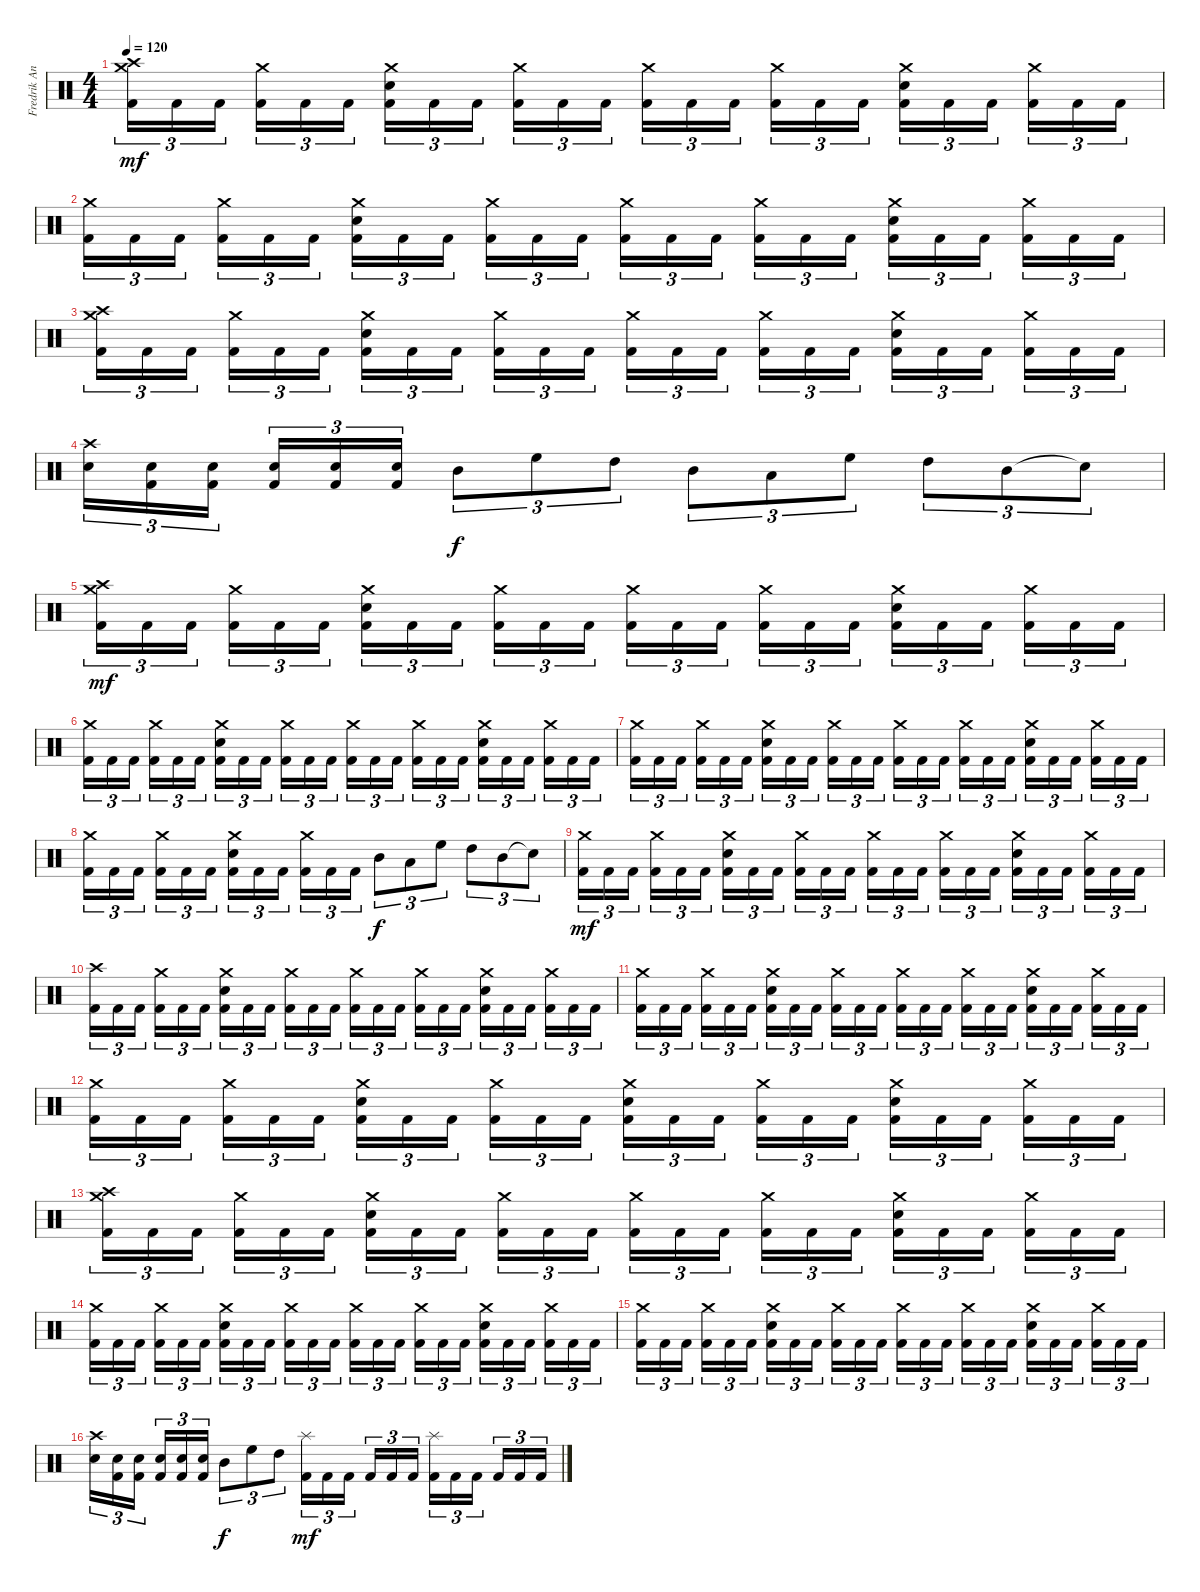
\track ("Fredrik Andersson" "Fredrik An") {instrument percussion}
\staff {score}
\articulation defaults
\ts (4 4)
\tempo 120
\clef neutral
\ks c
("Crash high (hit)" "Crash medium (hit)" "Kick (hit) 2").16{tu (3 2) dy mf} "Kick (hit) 2".16{tu (3 2)} "Kick (hit) 2".16{tu (3 2) beam splitsecondary} ("Crash medium (hit)" "Kick (hit) 2").16{tu (3 2)} "Kick (hit) 2".16{tu (3 2)} "Kick (hit) 2".16{tu (3 2)} ("Snare (hit) 2" "Crash medium (hit)" "Kick (hit) 2").16{tu (3 2)} "Kick (hit) 2".16{tu (3 2)} "Kick (hit) 2".16{tu (3 2) beam splitsecondary} ("Crash medium (hit)" "Kick (hit) 2").16{tu (3 2)} "Kick (hit) 2".16{tu (3 2)} "Kick (hit) 2".16{tu (3 2)} ("Crash medium (hit)" "Kick (hit) 2").16{tu (3 2)} "Kick (hit) 2".16{tu (3 2)} "Kick (hit) 2".16{tu (3 2) beam splitsecondary} ("Crash medium (hit)" "Kick (hit) 2").16{tu (3 2)} "Kick (hit) 2".16{tu (3 2)} "Kick (hit) 2".16{tu (3 2)} ("Snare (hit) 2" "Crash medium (hit)" "Kick (hit) 2").16{tu (3 2)} "Kick (hit) 2".16{tu (3 2)} "Kick (hit) 2".16{tu (3 2) beam splitsecondary} ("Crash medium (hit)" "Kick (hit) 2").16{tu (3 2)} "Kick (hit) 2".16{tu (3 2)} "Kick (hit) 2".16{tu (3 2)} |
("Crash medium (hit)" "Kick (hit) 2").16{tu (3 2)} "Kick (hit) 2".16{tu (3 2)} "Kick (hit) 2".16{tu (3 2) beam splitsecondary} ("Crash medium (hit)" "Kick (hit) 2").16{tu (3 2)} "Kick (hit) 2".16{tu (3 2)} "Kick (hit) 2".16{tu (3 2)} ("Snare (hit) 2" "Crash medium (hit)" "Kick (hit) 2").16{tu (3 2)} "Kick (hit) 2".16{tu (3 2)} "Kick (hit) 2".16{tu (3 2) beam splitsecondary} ("Crash medium (hit)" "Kick (hit) 2").16{tu (3 2)} "Kick (hit) 2".16{tu (3 2)} "Kick (hit) 2".16{tu (3 2)} ("Crash medium (hit)" "Kick (hit) 2").16{tu (3 2)} "Kick (hit) 2".16{tu (3 2)} "Kick (hit) 2".16{tu (3 2) beam splitsecondary} ("Crash medium (hit)" "Kick (hit) 2").16{tu (3 2)} "Kick (hit) 2".16{tu (3 2)} "Kick (hit) 2".16{tu (3 2)} ("Snare (hit) 2" "Crash medium (hit)" "Kick (hit) 2").16{tu (3 2)} "Kick (hit) 2".16{tu (3 2)} "Kick (hit) 2".16{tu (3 2) beam splitsecondary} ("Crash medium (hit)" "Kick (hit) 2").16{tu (3 2)} "Kick (hit) 2".16{tu (3 2)} "Kick (hit) 2".16{tu (3 2)} |
("Crash high (hit)" "Crash medium (hit)" "Kick (hit) 2").16{tu (3 2)} "Kick (hit) 2".16{tu (3 2)} "Kick (hit) 2".16{tu (3 2) beam splitsecondary} ("Crash medium (hit)" "Kick (hit) 2").16{tu (3 2)} "Kick (hit) 2".16{tu (3 2)} "Kick (hit) 2".16{tu (3 2)} ("Snare (hit) 2" "Crash medium (hit)" "Kick (hit) 2").16{tu (3 2)} "Kick (hit) 2".16{tu (3 2)} "Kick (hit) 2".16{tu (3 2) beam splitsecondary} ("Crash medium (hit)" "Kick (hit) 2").16{tu (3 2)} "Kick (hit) 2".16{tu (3 2)} "Kick (hit) 2".16{tu (3 2)} ("Crash medium (hit)" "Kick (hit) 2").16{tu (3 2)} "Kick (hit) 2".16{tu (3 2)} "Kick (hit) 2".16{tu (3 2) beam splitsecondary} ("Crash medium (hit)" "Kick (hit) 2").16{tu (3 2)} "Kick (hit) 2".16{tu (3 2)} "Kick (hit) 2".16{tu (3 2)} ("Snare (hit) 2" "Crash medium (hit)" "Kick (hit) 2").16{tu (3 2)} "Kick (hit) 2".16{tu (3 2)} "Kick (hit) 2".16{tu (3 2) beam splitsecondary} ("Crash medium (hit)" "Kick (hit) 2").16{tu (3 2)} "Kick (hit) 2".16{tu (3 2)} "Kick (hit) 2".16{tu (3 2)} |
("Crash high (hit)" "Snare (hit) 2").16{tu (3 2)} ("Snare (hit) 2" "Kick (hit) 2").16{tu (3 2)} ("Snare (hit) 2" "Kick (hit) 2").16{tu (3 2) beam splitsecondary} ("Snare (hit) 2" "Kick (hit) 2").16{tu (3 2)} ("Snare (hit) 2" "Kick (hit) 2").16{tu (3 2)} ("Snare (hit) 2" "Kick (hit) 2").16{tu (3 2)} "Mid Tom (hit)".8{tu (3 2) dy f} "High Floor Tom (hit)".8{tu (3 2)} "High Tom (hit)".8{tu (3 2)} "Mid Tom (hit)".8{tu (3 2)} "Low Tom (hit)".8{tu (3 2)} "High Floor Tom (hit)".8{tu (3 2)} "High Tom (hit)".8{tu (3 2)} "Mid Tom (hit)".8{tu (3 2)} "Snare (hit)"{t}.8{tu (3 2)} |
("Crash high (hit)" "Crash medium (hit)" "Kick (hit) 2").16{tu (3 2) dy mf} "Kick (hit) 2".16{tu (3 2)} "Kick (hit) 2".16{tu (3 2) beam splitsecondary} ("Crash medium (hit)" "Kick (hit) 2").16{tu (3 2)} "Kick (hit) 2".16{tu (3 2)} "Kick (hit) 2".16{tu (3 2)} ("Snare (hit) 2" "Crash medium (hit)" "Kick (hit) 2").16{tu (3 2)} "Kick (hit) 2".16{tu (3 2)} "Kick (hit) 2".16{tu (3 2) beam splitsecondary} ("Crash medium (hit)" "Kick (hit) 2").16{tu (3 2)} "Kick (hit) 2".16{tu (3 2)} "Kick (hit) 2".16{tu (3 2)} ("Crash medium (hit)" "Kick (hit) 2").16{tu (3 2)} "Kick (hit) 2".16{tu (3 2)} "Kick (hit) 2".16{tu (3 2) beam splitsecondary} ("Crash medium (hit)" "Kick (hit) 2").16{tu (3 2)} "Kick (hit) 2".16{tu (3 2)} "Kick (hit) 2".16{tu (3 2)} ("Snare (hit) 2" "Crash medium (hit)" "Kick (hit) 2").16{tu (3 2)} "Kick (hit) 2".16{tu (3 2)} "Kick (hit) 2".16{tu (3 2) beam splitsecondary} ("Crash medium (hit)" "Kick (hit) 2").16{tu (3 2)} "Kick (hit) 2".16{tu (3 2)} "Kick (hit) 2".16{tu (3 2)} |
("Crash medium (hit)" "Kick (hit) 2").16{tu (3 2)} "Kick (hit) 2".16{tu (3 2)} "Kick (hit) 2".16{tu (3 2) beam splitsecondary} ("Crash medium (hit)" "Kick (hit) 2").16{tu (3 2)} "Kick (hit) 2".16{tu (3 2)} "Kick (hit) 2".16{tu (3 2)} ("Snare (hit) 2" "Crash medium (hit)" "Kick (hit) 2").16{tu (3 2)} "Kick (hit) 2".16{tu (3 2)} "Kick (hit) 2".16{tu (3 2) beam splitsecondary} ("Crash medium (hit)" "Kick (hit) 2").16{tu (3 2)} "Kick (hit) 2".16{tu (3 2)} "Kick (hit) 2".16{tu (3 2)} ("Crash medium (hit)" "Kick (hit) 2").16{tu (3 2)} "Kick (hit) 2".16{tu (3 2)} "Kick (hit) 2".16{tu (3 2) beam splitsecondary} ("Crash medium (hit)" "Kick (hit) 2").16{tu (3 2)} "Kick (hit) 2".16{tu (3 2)} "Kick (hit) 2".16{tu (3 2)} ("Snare (hit) 2" "Crash medium (hit)" "Kick (hit) 2").16{tu (3 2)} "Kick (hit) 2".16{tu (3 2)} "Kick (hit) 2".16{tu (3 2) beam splitsecondary} ("Crash medium (hit)" "Kick (hit) 2").16{tu (3 2)} "Kick (hit) 2".16{tu (3 2)} "Kick (hit) 2".16{tu (3 2)} |
("Crash medium (hit)" "Kick (hit) 2").16{tu (3 2)} "Kick (hit) 2".16{tu (3 2)} "Kick (hit) 2".16{tu (3 2) beam splitsecondary} ("Crash medium (hit)" "Kick (hit) 2").16{tu (3 2)} "Kick (hit) 2".16{tu (3 2)} "Kick (hit) 2".16{tu (3 2)} ("Snare (hit) 2" "Crash medium (hit)" "Kick (hit) 2").16{tu (3 2)} "Kick (hit) 2".16{tu (3 2)} "Kick (hit) 2".16{tu (3 2) beam splitsecondary} ("Crash medium (hit)" "Kick (hit) 2").16{tu (3 2)} "Kick (hit) 2".16{tu (3 2)} "Kick (hit) 2".16{tu (3 2)} ("Crash medium (hit)" "Kick (hit) 2").16{tu (3 2)} "Kick (hit) 2".16{tu (3 2)} "Kick (hit) 2".16{tu (3 2) beam splitsecondary} ("Crash medium (hit)" "Kick (hit) 2").16{tu (3 2)} "Kick (hit) 2".16{tu (3 2)} "Kick (hit) 2".16{tu (3 2)} ("Snare (hit) 2" "Crash medium (hit)" "Kick (hit) 2").16{tu (3 2)} "Kick (hit) 2".16{tu (3 2)} "Kick (hit) 2".16{tu (3 2) beam splitsecondary} ("Crash medium (hit)" "Kick (hit) 2").16{tu (3 2)} "Kick (hit) 2".16{tu (3 2)} "Kick (hit) 2".16{tu (3 2)} |
("Crash medium (hit)" "Kick (hit) 2").16{tu (3 2)} "Kick (hit) 2".16{tu (3 2)} "Kick (hit) 2".16{tu (3 2) beam splitsecondary} ("Crash medium (hit)" "Kick (hit) 2").16{tu (3 2)} "Kick (hit) 2".16{tu (3 2)} "Kick (hit) 2".16{tu (3 2)} ("Snare (hit) 2" "Crash medium (hit)" "Kick (hit) 2").16{tu (3 2)} "Kick (hit) 2".16{tu (3 2)} "Kick (hit) 2".16{tu (3 2) beam splitsecondary} ("Crash medium (hit)" "Kick (hit) 2").16{tu (3 2)} "Kick (hit) 2".16{tu (3 2)} "Kick (hit) 2".16{tu (3 2)} "Mid Tom (hit)".8{tu (3 2) dy f} "Low Tom (hit)".8{tu (3 2)} "High Floor Tom (hit)".8{tu (3 2)} "High Tom (hit)".8{tu (3 2)} "Mid Tom (hit)".8{tu (3 2)} "Snare (hit)"{t}.8{tu (3 2)} |
("Crash medium (hit)" "Kick (hit) 2").16{tu (3 2) dy mf} "Kick (hit) 2".16{tu (3 2)} "Kick (hit) 2".16{tu (3 2) beam splitsecondary} ("Crash medium (hit)" "Kick (hit) 2").16{tu (3 2)} "Kick (hit) 2".16{tu (3 2)} "Kick (hit) 2".16{tu (3 2)} ("Snare (hit) 2" "Crash medium (hit)" "Kick (hit) 2").16{tu (3 2)} "Kick (hit) 2".16{tu (3 2)} "Kick (hit) 2".16{tu (3 2) beam splitsecondary} ("Crash medium (hit)" "Kick (hit) 2").16{tu (3 2)} "Kick (hit) 2".16{tu (3 2)} "Kick (hit) 2".16{tu (3 2)} ("Crash medium (hit)" "Kick (hit) 2").16{tu (3 2)} "Kick (hit) 2".16{tu (3 2)} "Kick (hit) 2".16{tu (3 2) beam splitsecondary} ("Crash medium (hit)" "Kick (hit) 2").16{tu (3 2)} "Kick (hit) 2".16{tu (3 2)} "Kick (hit) 2".16{tu (3 2)} ("Snare (hit) 2" "Crash medium (hit)" "Kick (hit) 2").16{tu (3 2)} "Kick (hit) 2".16{tu (3 2)} "Kick (hit) 2".16{tu (3 2) beam splitsecondary} ("Crash medium (hit)" "Kick (hit) 2").16{tu (3 2)} "Kick (hit) 2".16{tu (3 2)} "Kick (hit) 2".16{tu (3 2)} |
("Crash high (hit)" "Kick (hit) 2").16{tu (3 2)} "Kick (hit) 2".16{tu (3 2)} "Kick (hit) 2".16{tu (3 2) beam splitsecondary} ("Crash medium (hit)" "Kick (hit) 2").16{tu (3 2)} "Kick (hit) 2".16{tu (3 2)} "Kick (hit) 2".16{tu (3 2)} ("Snare (hit) 2" "Crash medium (hit)" "Kick (hit) 2").16{tu (3 2)} "Kick (hit) 2".16{tu (3 2)} "Kick (hit) 2".16{tu (3 2) beam splitsecondary} ("Crash medium (hit)" "Kick (hit) 2").16{tu (3 2)} "Kick (hit) 2".16{tu (3 2)} "Kick (hit) 2".16{tu (3 2)} ("Crash medium (hit)" "Kick (hit) 2").16{tu (3 2)} "Kick (hit) 2".16{tu (3 2)} "Kick (hit) 2".16{tu (3 2) beam splitsecondary} ("Crash medium (hit)" "Kick (hit) 2").16{tu (3 2)} "Kick (hit) 2".16{tu (3 2)} "Kick (hit) 2".16{tu (3 2)} ("Snare (hit) 2" "Crash medium (hit)" "Kick (hit) 2").16{tu (3 2)} "Kick (hit) 2".16{tu (3 2)} "Kick (hit) 2".16{tu (3 2) beam splitsecondary} ("Crash medium (hit)" "Kick (hit) 2").16{tu (3 2)} "Kick (hit) 2".16{tu (3 2)} "Kick (hit) 2".16{tu (3 2)} |
("Crash medium (hit)" "Kick (hit) 2").16{tu (3 2)} "Kick (hit) 2".16{tu (3 2)} "Kick (hit) 2".16{tu (3 2) beam splitsecondary} ("Crash medium (hit)" "Kick (hit) 2").16{tu (3 2)} "Kick (hit) 2".16{tu (3 2)} "Kick (hit) 2".16{tu (3 2)} ("Snare (hit) 2" "Crash medium (hit)" "Kick (hit) 2").16{tu (3 2)} "Kick (hit) 2".16{tu (3 2)} "Kick (hit) 2".16{tu (3 2) beam splitsecondary} ("Crash medium (hit)" "Kick (hit) 2").16{tu (3 2)} "Kick (hit) 2".16{tu (3 2)} "Kick (hit) 2".16{tu (3 2)} ("Crash medium (hit)" "Kick (hit) 2").16{tu (3 2)} "Kick (hit) 2".16{tu (3 2)} "Kick (hit) 2".16{tu (3 2) beam splitsecondary} ("Crash medium (hit)" "Kick (hit) 2").16{tu (3 2)} "Kick (hit) 2".16{tu (3 2)} "Kick (hit) 2".16{tu (3 2)} ("Snare (hit) 2" "Crash medium (hit)" "Kick (hit) 2").16{tu (3 2)} "Kick (hit) 2".16{tu (3 2)} "Kick (hit) 2".16{tu (3 2) beam splitsecondary} ("Crash medium (hit)" "Kick (hit) 2").16{tu (3 2)} "Kick (hit) 2".16{tu (3 2)} "Kick (hit) 2".16{tu (3 2)} |
("Crash medium (hit)" "Kick (hit) 2").16{tu (3 2)} "Kick (hit) 2".16{tu (3 2)} "Kick (hit) 2".16{tu (3 2) beam splitsecondary} ("Crash medium (hit)" "Kick (hit) 2").16{tu (3 2)} "Kick (hit) 2".16{tu (3 2)} "Kick (hit) 2".16{tu (3 2)} ("Snare (hit) 2" "Crash medium (hit)" "Kick (hit) 2").16{tu (3 2)} "Kick (hit) 2".16{tu (3 2)} "Kick (hit) 2".16{tu (3 2) beam splitsecondary} ("Crash medium (hit)" "Kick (hit) 2").16{tu (3 2)} "Kick (hit) 2".16{tu (3 2)} "Kick (hit) 2".16{tu (3 2)} ("Snare (hit) 2" "Crash medium (hit)" "Kick (hit) 2").16{tu (3 2)} "Kick (hit) 2".16{tu (3 2)} "Kick (hit) 2".16{tu (3 2) beam splitsecondary} ("Crash medium (hit)" "Kick (hit) 2").16{tu (3 2)} "Kick (hit) 2".16{tu (3 2)} "Kick (hit) 2".16{tu (3 2)} ("Snare (hit) 2" "Crash medium (hit)" "Kick (hit) 2").16{tu (3 2)} "Kick (hit) 2".16{tu (3 2)} "Kick (hit) 2".16{tu (3 2) beam splitsecondary} ("Crash medium (hit)" "Kick (hit) 2").16{tu (3 2)} "Kick (hit) 2".16{tu (3 2)} "Kick (hit) 2".16{tu (3 2)} |
("Crash high (hit)" "Crash medium (hit)" "Kick (hit) 2").16{tu (3 2)} "Kick (hit) 2".16{tu (3 2)} "Kick (hit) 2".16{tu (3 2) beam splitsecondary} ("Crash medium (hit)" "Kick (hit) 2").16{tu (3 2)} "Kick (hit) 2".16{tu (3 2)} "Kick (hit) 2".16{tu (3 2)} ("Snare (hit) 2" "Crash medium (hit)" "Kick (hit) 2").16{tu (3 2)} "Kick (hit) 2".16{tu (3 2)} "Kick (hit) 2".16{tu (3 2) beam splitsecondary} ("Crash medium (hit)" "Kick (hit) 2").16{tu (3 2)} "Kick (hit) 2".16{tu (3 2)} "Kick (hit) 2".16{tu (3 2)} ("Crash medium (hit)" "Kick (hit) 2").16{tu (3 2)} "Kick (hit) 2".16{tu (3 2)} "Kick (hit) 2".16{tu (3 2) beam splitsecondary} ("Crash medium (hit)" "Kick (hit) 2").16{tu (3 2)} "Kick (hit) 2".16{tu (3 2)} "Kick (hit) 2".16{tu (3 2)} ("Snare (hit) 2" "Crash medium (hit)" "Kick (hit) 2").16{tu (3 2)} "Kick (hit) 2".16{tu (3 2)} "Kick (hit) 2".16{tu (3 2) beam splitsecondary} ("Crash medium (hit)" "Kick (hit) 2").16{tu (3 2)} "Kick (hit) 2".16{tu (3 2)} "Kick (hit) 2".16{tu (3 2)} |
("Crash medium (hit)" "Kick (hit) 2").16{tu (3 2)} "Kick (hit) 2".16{tu (3 2)} "Kick (hit) 2".16{tu (3 2) beam splitsecondary} ("Crash medium (hit)" "Kick (hit) 2").16{tu (3 2)} "Kick (hit) 2".16{tu (3 2)} "Kick (hit) 2".16{tu (3 2)} ("Snare (hit) 2" "Crash medium (hit)" "Kick (hit) 2").16{tu (3 2)} "Kick (hit) 2".16{tu (3 2)} "Kick (hit) 2".16{tu (3 2) beam splitsecondary} ("Crash medium (hit)" "Kick (hit) 2").16{tu (3 2)} "Kick (hit) 2".16{tu (3 2)} "Kick (hit) 2".16{tu (3 2)} ("Crash medium (hit)" "Kick (hit) 2").16{tu (3 2)} "Kick (hit) 2".16{tu (3 2)} "Kick (hit) 2".16{tu (3 2) beam splitsecondary} ("Crash medium (hit)" "Kick (hit) 2").16{tu (3 2)} "Kick (hit) 2".16{tu (3 2)} "Kick (hit) 2".16{tu (3 2)} ("Snare (hit) 2" "Crash medium (hit)" "Kick (hit) 2").16{tu (3 2)} "Kick (hit) 2".16{tu (3 2)} "Kick (hit) 2".16{tu (3 2) beam splitsecondary} ("Crash medium (hit)" "Kick (hit) 2").16{tu (3 2)} "Kick (hit) 2".16{tu (3 2)} "Kick (hit) 2".16{tu (3 2)} |
("Crash medium (hit)" "Kick (hit) 2").16{tu (3 2)} "Kick (hit) 2".16{tu (3 2)} "Kick (hit) 2".16{tu (3 2) beam splitsecondary} ("Crash medium (hit)" "Kick (hit) 2").16{tu (3 2)} "Kick (hit) 2".16{tu (3 2)} "Kick (hit) 2".16{tu (3 2)} ("Snare (hit) 2" "Crash medium (hit)" "Kick (hit) 2").16{tu (3 2)} "Kick (hit) 2".16{tu (3 2)} "Kick (hit) 2".16{tu (3 2) beam splitsecondary} ("Crash medium (hit)" "Kick (hit) 2").16{tu (3 2)} "Kick (hit) 2".16{tu (3 2)} "Kick (hit) 2".16{tu (3 2)} ("Crash medium (hit)" "Kick (hit) 2").16{tu (3 2)} "Kick (hit) 2".16{tu (3 2)} "Kick (hit) 2".16{tu (3 2) beam splitsecondary} ("Crash medium (hit)" "Kick (hit) 2").16{tu (3 2)} "Kick (hit) 2".16{tu (3 2)} "Kick (hit) 2".16{tu (3 2)} ("Snare (hit) 2" "Crash medium (hit)" "Kick (hit) 2").16{tu (3 2)} "Kick (hit) 2".16{tu (3 2)} "Kick (hit) 2".16{tu (3 2) beam splitsecondary} ("Crash medium (hit)" "Kick (hit) 2").16{tu (3 2)} "Kick (hit) 2".16{tu (3 2)} "Kick (hit) 2".16{tu (3 2)} |
("Crash high (hit)" "Snare (hit) 2").16{tu (3 2)} ("Snare (hit) 2" "Kick (hit) 2").16{tu (3 2)} ("Snare (hit) 2" "Kick (hit) 2").16{tu (3 2) beam splitsecondary} ("Snare (hit) 2" "Kick (hit) 2").16{tu (3 2)} ("Snare (hit) 2" "Kick (hit) 2").16{tu (3 2)} ("Snare (hit) 2" "Kick (hit) 2").16{tu (3 2)} "Mid Tom (hit)".8{tu (3 2) dy f} "High Floor Tom (hit)".8{tu (3 2)} "High Tom (hit)".8{tu (3 2)} ("Splash (hit)" "Kick (hit) 2").16{tu (3 2) dy mf} "Kick (hit) 2".16{tu (3 2)} "Kick (hit) 2".16{tu (3 2) beam splitsecondary} "Kick (hit) 2".16{tu (3 2)} "Kick (hit) 2".16{tu (3 2)} "Kick (hit) 2".16{tu (3 2)} ("Splash (hit)" "Kick (hit) 2").16{tu (3 2)} "Kick (hit) 2".16{tu (3 2)} "Kick (hit) 2".16{tu (3 2) beam splitsecondary} "Kick (hit) 2".16{tu (3 2)} "Kick (hit) 2".16{tu (3 2)} "Kick (hit) 2".16{tu (3 2)}
